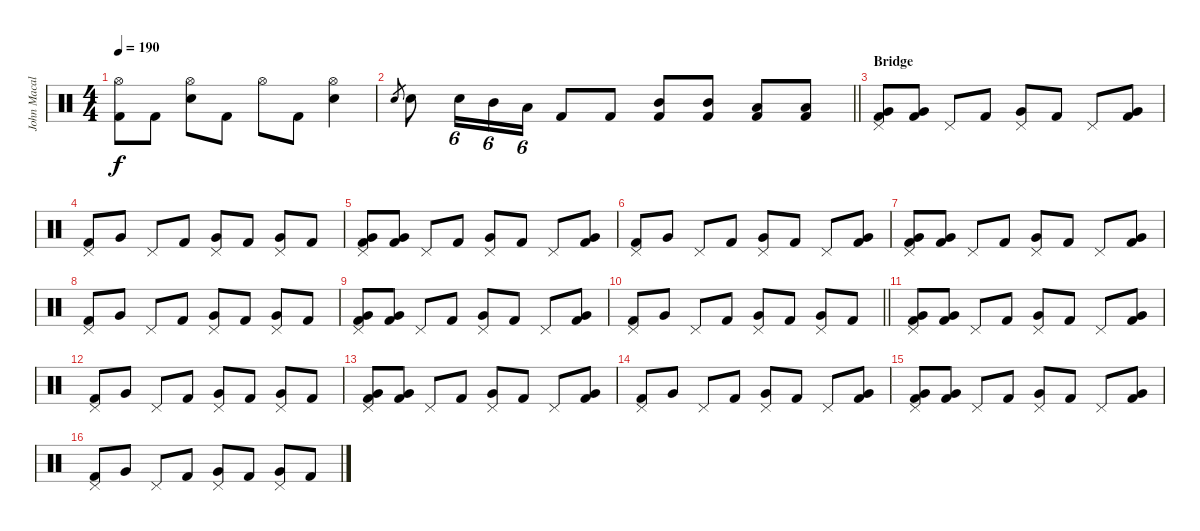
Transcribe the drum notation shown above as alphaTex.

\track ("John Macaluso" "John Macal") {instrument percussion}
\staff {score}
\articulation defaults
\ts (4 4)
\tempo 190
\clef neutral
\ks c
("Hi-Hat (open)" "Kick (hit) 2").8{dy f} "Kick (hit) 2".8 ("Hi-Hat (open)" "Snare (hit) 2").8 "Kick (hit) 2".8 "Hi-Hat (open)".8 "Kick (hit) 2".8 ("Hi-Hat (open)" "Snare (hit) 2").4 |
\barLineRight lightlight "Snare (hit) 2".8{gr} "Snare (hit) 2".8 "Snare (hit) 2".16{tu (6 4)} "Mid Tom (hit)".16{tu (6 4)} "Low Tom (hit)".16{tu (6 4)} "Kick (hit) 2".8 "Kick (hit) 2".8
("Mid Tom (hit)" "Kick (hit) 2").8 ("Mid Tom (hit)" "Kick (hit) 2").8 ("Low Tom (hit)" "Kick (hit) 2").8 ("Low Tom (hit)" "Kick (hit) 2").8 |
\section ("" "Bridge")
("Pedal Hi-Hat (hit)" "Very Low Tom (hit)" "Kick (hit) 2").8 ("Very Low Tom (hit)" "Kick (hit) 2").8 "Pedal Hi-Hat (hit)".8 "Kick (hit) 2".8 ("Pedal Hi-Hat (hit)" "Very Low Tom (hit)").8 "Kick (hit) 2".8 "Pedal Hi-Hat (hit)".8 ("Very Low Tom (hit)" "Kick (hit) 2").8 |
("Pedal Hi-Hat (hit)" "Kick (hit) 2").8 "Very Low Tom (hit)".8 "Pedal Hi-Hat (hit)".8 "Kick (hit) 2".8 ("Pedal Hi-Hat (hit)" "Very Low Tom (hit)").8 "Kick (hit) 2".8 ("Pedal Hi-Hat (hit)" "Very Low Tom (hit)").8 "Kick (hit) 2".8 |
("Pedal Hi-Hat (hit)" "Very Low Tom (hit)" "Kick (hit) 2").8 ("Very Low Tom (hit)" "Kick (hit) 2").8 "Pedal Hi-Hat (hit)".8 "Kick (hit) 2".8 ("Pedal Hi-Hat (hit)" "Very Low Tom (hit)").8 "Kick (hit) 2".8 "Pedal Hi-Hat (hit)".8 ("Very Low Tom (hit)" "Kick (hit) 2").8 |
("Pedal Hi-Hat (hit)" "Kick (hit) 2").8 "Very Low Tom (hit)".8 "Pedal Hi-Hat (hit)".8 "Kick (hit) 2".8 ("Pedal Hi-Hat (hit)" "Very Low Tom (hit)").8 "Kick (hit) 2".8 "Pedal Hi-Hat (hit)".8 ("Very Low Tom (hit)" "Kick (hit) 2").8 |
("Pedal Hi-Hat (hit)" "Very Low Tom (hit)" "Kick (hit) 2").8 ("Very Low Tom (hit)" "Kick (hit) 2").8 "Pedal Hi-Hat (hit)".8 "Kick (hit) 2".8 ("Pedal Hi-Hat (hit)" "Very Low Tom (hit)").8 "Kick (hit) 2".8 "Pedal Hi-Hat (hit)".8 ("Very Low Tom (hit)" "Kick (hit) 2").8 |
("Pedal Hi-Hat (hit)" "Kick (hit) 2").8 "Very Low Tom (hit)".8 "Pedal Hi-Hat (hit)".8 "Kick (hit) 2".8 ("Pedal Hi-Hat (hit)" "Very Low Tom (hit)").8 "Kick (hit) 2".8 ("Pedal Hi-Hat (hit)" "Very Low Tom (hit)").8 "Kick (hit) 2".8 |
("Pedal Hi-Hat (hit)" "Very Low Tom (hit)" "Kick (hit) 2").8 ("Very Low Tom (hit)" "Kick (hit) 2").8 "Pedal Hi-Hat (hit)".8 "Kick (hit) 2".8 ("Pedal Hi-Hat (hit)" "Very Low Tom (hit)").8 "Kick (hit) 2".8 "Pedal Hi-Hat (hit)".8 ("Very Low Tom (hit)" "Kick (hit) 2").8 |
\barLineRight lightlight
("Pedal Hi-Hat (hit)" "Kick (hit) 2").8 "Very Low Tom (hit)".8 "Pedal Hi-Hat (hit)".8 "Kick (hit) 2".8 ("Pedal Hi-Hat (hit)" "Very Low Tom (hit)").8 "Kick (hit) 2".8 ("Pedal Hi-Hat (hit)" "Very Low Tom (hit)").8 "Kick (hit) 2".8 |
("Pedal Hi-Hat (hit)" "Very Low Tom (hit)" "Kick (hit) 2").8 ("Very Low Tom (hit)" "Kick (hit) 2").8 "Pedal Hi-Hat (hit)".8 "Kick (hit) 2".8 ("Pedal Hi-Hat (hit)" "Very Low Tom (hit)").8 "Kick (hit) 2".8 "Pedal Hi-Hat (hit)".8 ("Very Low Tom (hit)" "Kick (hit) 2").8 |
("Pedal Hi-Hat (hit)" "Kick (hit) 2").8 "Very Low Tom (hit)".8 "Pedal Hi-Hat (hit)".8 "Kick (hit) 2".8 ("Pedal Hi-Hat (hit)" "Very Low Tom (hit)").8 "Kick (hit) 2".8 ("Pedal Hi-Hat (hit)" "Very Low Tom (hit)").8 "Kick (hit) 2".8 |
("Pedal Hi-Hat (hit)" "Very Low Tom (hit)" "Kick (hit) 2").8 ("Very Low Tom (hit)" "Kick (hit) 2").8 "Pedal Hi-Hat (hit)".8 "Kick (hit) 2".8 ("Pedal Hi-Hat (hit)" "Very Low Tom (hit)").8 "Kick (hit) 2".8 "Pedal Hi-Hat (hit)".8 ("Very Low Tom (hit)" "Kick (hit) 2").8 |
("Pedal Hi-Hat (hit)" "Kick (hit) 2").8 "Very Low Tom (hit)".8 "Pedal Hi-Hat (hit)".8 "Kick (hit) 2".8 ("Pedal Hi-Hat (hit)" "Very Low Tom (hit)").8 "Kick (hit) 2".8 "Pedal Hi-Hat (hit)".8 ("Very Low Tom (hit)" "Kick (hit) 2").8 |
("Pedal Hi-Hat (hit)" "Very Low Tom (hit)" "Kick (hit) 2").8 ("Very Low Tom (hit)" "Kick (hit) 2").8 "Pedal Hi-Hat (hit)".8 "Kick (hit) 2".8 ("Pedal Hi-Hat (hit)" "Very Low Tom (hit)").8 "Kick (hit) 2".8 "Pedal Hi-Hat (hit)".8 ("Very Low Tom (hit)" "Kick (hit) 2").8 |
("Pedal Hi-Hat (hit)" "Kick (hit) 2").8 "Very Low Tom (hit)".8 "Pedal Hi-Hat (hit)".8 "Kick (hit) 2".8 ("Pedal Hi-Hat (hit)" "Very Low Tom (hit)").8 "Kick (hit) 2".8 ("Pedal Hi-Hat (hit)" "Very Low Tom (hit)").8 "Kick (hit) 2".8
